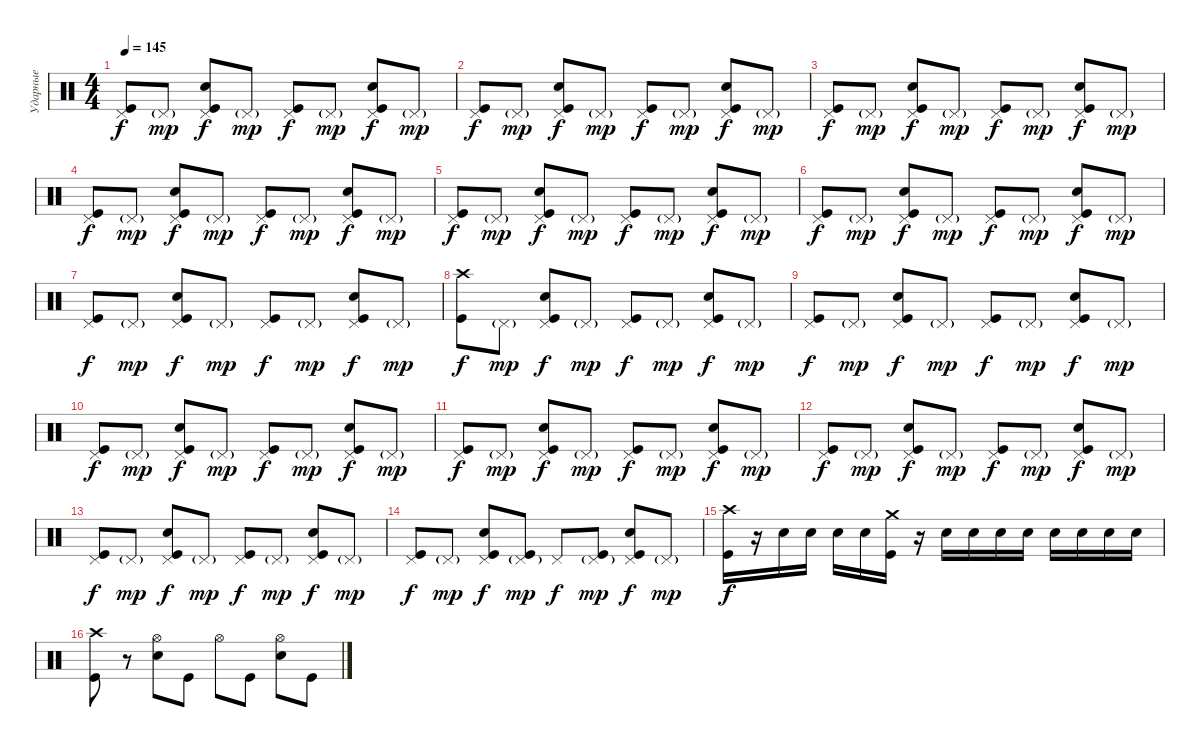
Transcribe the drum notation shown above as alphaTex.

\track ("Ударные" "Ударные") {instrument percussion}
\staff {score}
\articulation defaults
\ts (4 4)
\tempo 145
\clef neutral
\ks c
("Pedal Hi-Hat (hit)" "Kick (hit)").8{dy f} "Pedal Hi-Hat (hit)"{g}.8{dy mp} ("Pedal Hi-Hat (hit)" "Electric Snare (hit)" "Kick (hit)").8{dy f} "Pedal Hi-Hat (hit)"{g}.8{dy mp} ("Pedal Hi-Hat (hit)" "Kick (hit)").8{dy f} "Pedal Hi-Hat (hit)"{g}.8{dy mp} ("Pedal Hi-Hat (hit)" "Electric Snare (hit)" "Kick (hit)").8{dy f} "Pedal Hi-Hat (hit)"{g}.8{dy mp} |
("Pedal Hi-Hat (hit)" "Kick (hit)").8{dy f} "Pedal Hi-Hat (hit)"{g}.8{dy mp} ("Pedal Hi-Hat (hit)" "Electric Snare (hit)" "Kick (hit)").8{dy f} "Pedal Hi-Hat (hit)"{g}.8{dy mp} ("Pedal Hi-Hat (hit)" "Kick (hit)").8{dy f} "Pedal Hi-Hat (hit)"{g}.8{dy mp} ("Pedal Hi-Hat (hit)" "Electric Snare (hit)" "Kick (hit)").8{dy f} "Pedal Hi-Hat (hit)"{g}.8{dy mp} |
("Pedal Hi-Hat (hit)" "Kick (hit)").8{dy f} "Pedal Hi-Hat (hit)"{g}.8{dy mp} ("Pedal Hi-Hat (hit)" "Electric Snare (hit)" "Kick (hit)").8{dy f} "Pedal Hi-Hat (hit)"{g}.8{dy mp} ("Pedal Hi-Hat (hit)" "Kick (hit)").8{dy f} "Pedal Hi-Hat (hit)"{g}.8{dy mp} ("Pedal Hi-Hat (hit)" "Electric Snare (hit)" "Kick (hit)").8{dy f} "Pedal Hi-Hat (hit)"{g}.8{dy mp} |
("Pedal Hi-Hat (hit)" "Kick (hit)").8{dy f} "Pedal Hi-Hat (hit)"{g}.8{dy mp} ("Pedal Hi-Hat (hit)" "Electric Snare (hit)" "Kick (hit)").8{dy f} "Pedal Hi-Hat (hit)"{g}.8{dy mp} ("Pedal Hi-Hat (hit)" "Kick (hit)").8{dy f} "Pedal Hi-Hat (hit)"{g}.8{dy mp} ("Pedal Hi-Hat (hit)" "Electric Snare (hit)" "Kick (hit)").8{dy f} "Pedal Hi-Hat (hit)"{g}.8{dy mp} |
("Pedal Hi-Hat (hit)" "Kick (hit)").8{dy f} "Pedal Hi-Hat (hit)"{g}.8{dy mp} ("Pedal Hi-Hat (hit)" "Electric Snare (hit)" "Kick (hit)").8{dy f} "Pedal Hi-Hat (hit)"{g}.8{dy mp} ("Pedal Hi-Hat (hit)" "Kick (hit)").8{dy f} "Pedal Hi-Hat (hit)"{g}.8{dy mp} ("Pedal Hi-Hat (hit)" "Electric Snare (hit)" "Kick (hit)").8{dy f} "Pedal Hi-Hat (hit)"{g}.8{dy mp} |
("Pedal Hi-Hat (hit)" "Kick (hit)").8{dy f} "Pedal Hi-Hat (hit)"{g}.8{dy mp} ("Pedal Hi-Hat (hit)" "Electric Snare (hit)" "Kick (hit)").8{dy f} "Pedal Hi-Hat (hit)"{g}.8{dy mp} ("Pedal Hi-Hat (hit)" "Kick (hit)").8{dy f} "Pedal Hi-Hat (hit)"{g}.8{dy mp} ("Pedal Hi-Hat (hit)" "Electric Snare (hit)" "Kick (hit)").8{dy f} "Pedal Hi-Hat (hit)"{g}.8{dy mp} |
("Pedal Hi-Hat (hit)" "Kick (hit)").8{dy f} "Pedal Hi-Hat (hit)"{g}.8{dy mp} ("Pedal Hi-Hat (hit)" "Electric Snare (hit)" "Kick (hit)").8{dy f} "Pedal Hi-Hat (hit)"{g}.8{dy mp} ("Pedal Hi-Hat (hit)" "Kick (hit)").8{dy f} "Pedal Hi-Hat (hit)"{g}.8{dy mp} ("Pedal Hi-Hat (hit)" "Electric Snare (hit)" "Kick (hit)").8{dy f} "Pedal Hi-Hat (hit)"{g}.8{dy mp} |
("Crash high (hit)" "Kick (hit)").8{dy f} "Pedal Hi-Hat (hit)"{g}.8{dy mp} ("Pedal Hi-Hat (hit)" "Electric Snare (hit)" "Kick (hit)").8{dy f} "Pedal Hi-Hat (hit)"{g}.8{dy mp} ("Pedal Hi-Hat (hit)" "Kick (hit)").8{dy f} "Pedal Hi-Hat (hit)"{g}.8{dy mp} ("Pedal Hi-Hat (hit)" "Electric Snare (hit)" "Kick (hit)").8{dy f} "Pedal Hi-Hat (hit)"{g}.8{dy mp} |
("Pedal Hi-Hat (hit)" "Kick (hit)").8{dy f} "Pedal Hi-Hat (hit)"{g}.8{dy mp} ("Pedal Hi-Hat (hit)" "Electric Snare (hit)" "Kick (hit)").8{dy f} "Pedal Hi-Hat (hit)"{g}.8{dy mp} ("Pedal Hi-Hat (hit)" "Kick (hit)").8{dy f} "Pedal Hi-Hat (hit)"{g}.8{dy mp} ("Pedal Hi-Hat (hit)" "Electric Snare (hit)" "Kick (hit)").8{dy f} "Pedal Hi-Hat (hit)"{g}.8{dy mp} |
("Pedal Hi-Hat (hit)" "Kick (hit)").8{dy f} "Pedal Hi-Hat (hit)"{g}.8{dy mp} ("Pedal Hi-Hat (hit)" "Electric Snare (hit)" "Kick (hit)").8{dy f} "Pedal Hi-Hat (hit)"{g}.8{dy mp} ("Pedal Hi-Hat (hit)" "Kick (hit)").8{dy f} "Pedal Hi-Hat (hit)"{g}.8{dy mp} ("Pedal Hi-Hat (hit)" "Electric Snare (hit)" "Kick (hit)").8{dy f} "Pedal Hi-Hat (hit)"{g}.8{dy mp} |
("Pedal Hi-Hat (hit)" "Kick (hit)").8{dy f} "Pedal Hi-Hat (hit)"{g}.8{dy mp} ("Pedal Hi-Hat (hit)" "Electric Snare (hit)" "Kick (hit)").8{dy f} "Pedal Hi-Hat (hit)"{g}.8{dy mp} ("Pedal Hi-Hat (hit)" "Kick (hit)").8{dy f} "Pedal Hi-Hat (hit)"{g}.8{dy mp} ("Pedal Hi-Hat (hit)" "Electric Snare (hit)" "Kick (hit)").8{dy f} "Pedal Hi-Hat (hit)"{g}.8{dy mp} |
("Pedal Hi-Hat (hit)" "Kick (hit)").8{dy f} "Pedal Hi-Hat (hit)"{g}.8{dy mp} ("Pedal Hi-Hat (hit)" "Electric Snare (hit)" "Kick (hit)").8{dy f} "Pedal Hi-Hat (hit)"{g}.8{dy mp} ("Pedal Hi-Hat (hit)" "Kick (hit)").8{dy f} "Pedal Hi-Hat (hit)"{g}.8{dy mp} ("Pedal Hi-Hat (hit)" "Electric Snare (hit)" "Kick (hit)").8{dy f} "Pedal Hi-Hat (hit)"{g}.8{dy mp} |
("Pedal Hi-Hat (hit)" "Kick (hit)").8{dy f} "Pedal Hi-Hat (hit)"{g}.8{dy mp} ("Pedal Hi-Hat (hit)" "Electric Snare (hit)" "Kick (hit)").8{dy f} "Pedal Hi-Hat (hit)"{g}.8{dy mp} ("Pedal Hi-Hat (hit)" "Kick (hit)").8{dy f} "Pedal Hi-Hat (hit)"{g}.8{dy mp} ("Pedal Hi-Hat (hit)" "Electric Snare (hit)" "Kick (hit)").8{dy f} "Pedal Hi-Hat (hit)"{g}.8{dy mp} |
("Pedal Hi-Hat (hit)" "Kick (hit)").8{dy f} "Pedal Hi-Hat (hit)"{g}.8{dy mp} ("Pedal Hi-Hat (hit)" "Electric Snare (hit)" "Kick (hit)").8{dy f} ("Pedal Hi-Hat (hit)"{g} "Kick (hit)").8{dy mp} "Pedal Hi-Hat (hit)".8{dy f} ("Pedal Hi-Hat (hit)"{g} "Kick (hit)").8{dy mp} ("Pedal Hi-Hat (hit)" "Electric Snare (hit)" "Kick (hit)").8{dy f} "Pedal Hi-Hat (hit)"{g}.8{dy mp} |
("Crash high (hit)" "Kick (hit)").16{dy f} r.16 "Electric Snare (hit)".16 "Electric Snare (hit)".16 "Electric Snare (hit)".16 "Electric Snare (hit)".16 ("Crash medium (hit)" "Kick (hit)").16 r.16 "Electric Snare (hit)".16 "Electric Snare (hit)".16 "Electric Snare (hit)".16 "Electric Snare (hit)".16 "Electric Snare (hit)".16 "Electric Snare (hit)".16 "Electric Snare (hit)".16 "Electric Snare (hit)".16 |
("Crash high (hit)" "Kick (hit)").8 r.8 ("Hi-Hat (open)" "Electric Snare (hit)").8 "Kick (hit)".8 "Hi-Hat (open)".8 "Kick (hit)".8 ("Hi-Hat (open)" "Electric Snare (hit)").8 "Kick (hit)".8
